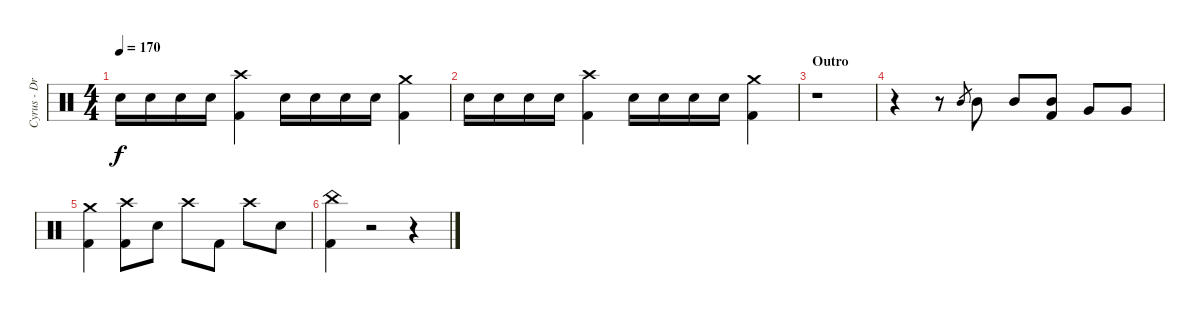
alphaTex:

\track ("Cyrus - Drums" "Cyrus - Dr") {instrument percussion}
\staff {score}
\articulation defaults
\ts (4 4)
\tempo 170
\clef neutral
\ks c "Electric Snare (hit)".16{dy f} "Electric Snare (hit)".16 "Electric Snare (hit)".16 "Electric Snare (hit)".16
("Crash high (hit)" "Kick (hit) 2").4 "Electric Snare (hit)".16 "Electric Snare (hit)".16 "Electric Snare (hit)".16 "Electric Snare (hit)".16 ("Crash medium (hit)" "Kick (hit) 2").4 |
"Electric Snare (hit)".16 "Electric Snare (hit)".16 "Electric Snare (hit)".16 "Electric Snare (hit)".16 ("Crash high (hit)" "Kick (hit) 2").4 "Electric Snare (hit)".16 "Electric Snare (hit)".16 "Electric Snare (hit)".16 "Electric Snare (hit)".16 ("Crash medium (hit)" "Kick (hit) 2").4 |
\section ("" "Outro")
r.1 |
r.4 r.8 "Mid Tom (hit)".8{gr} "Mid Tom (hit)".8 "Mid Tom (hit)".8 ("Mid Tom (hit)" "Kick (hit) 2").8 "Very Low Tom (hit)".8 "Very Low Tom (hit)".8 |
("Crash medium (hit)" "Kick (hit) 2").4 ("Crash high (hit)" "Kick (hit) 2").8 "Electric Snare (hit)".8 "Crash high (hit)".8 "Kick (hit) 2".8 "Crash high (hit)".8 "Electric Snare (hit)".8 |
("China (hit)" "Kick (hit) 2").4 r.2 r.4
